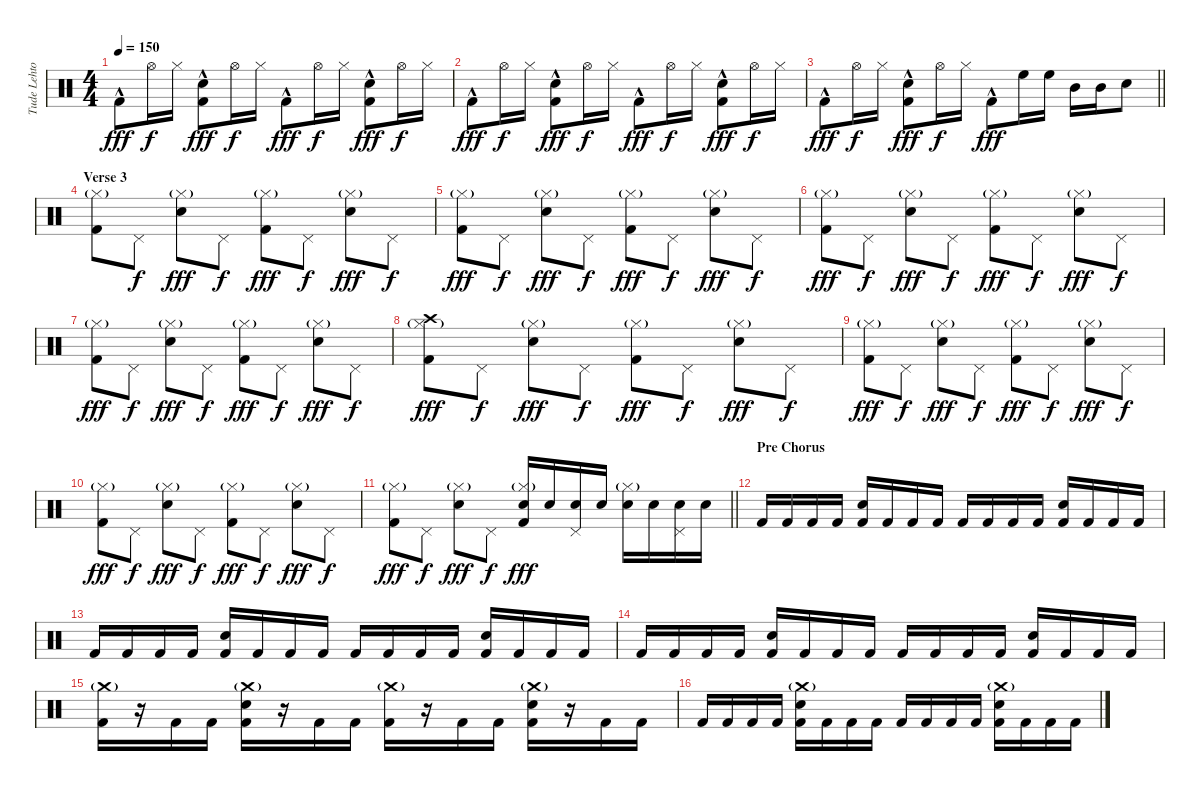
\track ("Tude Lehtonen" "Tude Lehto") {instrument percussion}
\staff {score}
\articulation defaults
\ts (4 4)
\tempo 150
\clef neutral
\ks c "Kick (hit) 2"{hac}.8{dy fff} "Hi-Hat (open)".16{dy f} "Hi-Hat (closed)".16
("Electric Snare (hit)" "Kick (hit) 2"{hac}).8{dy fff} "Hi-Hat (open)".16{dy f} "Hi-Hat (closed)".16 "Kick (hit) 2"{hac}.8{dy fff} "Hi-Hat (open)".16{dy f} "Hi-Hat (closed)".16 ("Electric Snare (hit)" "Kick (hit) 2"{hac}).8{dy fff} "Hi-Hat (open)".16{dy f} "Hi-Hat (closed)".16 |
"Kick (hit) 2"{hac}.8{dy fff} "Hi-Hat (open)".16{dy f} "Hi-Hat (closed)".16 ("Electric Snare (hit)" "Kick (hit) 2"{hac}).8{dy fff} "Hi-Hat (open)".16{dy f} "Hi-Hat (closed)".16 "Kick (hit) 2"{hac}.8{dy fff} "Hi-Hat (open)".16{dy f} "Hi-Hat (closed)".16 ("Electric Snare (hit)" "Kick (hit) 2"{hac}).8{dy fff} "Hi-Hat (open)".16{dy f} "Hi-Hat (closed)".16 |
\barLineRight lightlight "Kick (hit) 2"{hac}.8{dy fff} "Hi-Hat (open)".16{dy f} "Hi-Hat (closed)".16
("Electric Snare (hit)" "Kick (hit) 2"{hac}).8{dy fff} "Hi-Hat (open)".16{dy f} "Hi-Hat (closed)".16 "Kick (hit) 2"{hac}.8{dy fff} "High Floor Tom (hit)".16 "High Floor Tom (hit)".16 "Mid Tom (hit)".16 "Mid Tom (hit)".16 "Electric Snare (hit)".8 |
\section ("" "Verse 3")
("Hi-Hat (closed)"{g} "Kick (hit) 2").8 "Pedal Hi-Hat (hit)".8{dy f} ("Hi-Hat (closed)"{g} "Electric Snare (hit)").8{dy fff} "Pedal Hi-Hat (hit)".8{dy f} ("Hi-Hat (closed)"{g} "Kick (hit) 2").8{dy fff} "Pedal Hi-Hat (hit)".8{dy f} ("Hi-Hat (closed)"{g} "Electric Snare (hit)").8{dy fff} "Pedal Hi-Hat (hit)".8{dy f} |
("Hi-Hat (closed)"{g} "Kick (hit) 2").8{dy fff} "Pedal Hi-Hat (hit)".8{dy f} ("Hi-Hat (closed)"{g} "Electric Snare (hit)").8{dy fff} "Pedal Hi-Hat (hit)".8{dy f} ("Hi-Hat (closed)"{g} "Kick (hit) 2").8{dy fff} "Pedal Hi-Hat (hit)".8{dy f} ("Hi-Hat (closed)"{g} "Electric Snare (hit)").8{dy fff} "Pedal Hi-Hat (hit)".8{dy f} |
("Hi-Hat (closed)"{g} "Kick (hit) 2").8{dy fff} "Pedal Hi-Hat (hit)".8{dy f} ("Hi-Hat (closed)"{g} "Electric Snare (hit)").8{dy fff} "Pedal Hi-Hat (hit)".8{dy f} ("Hi-Hat (closed)"{g} "Kick (hit) 2").8{dy fff} "Pedal Hi-Hat (hit)".8{dy f} ("Hi-Hat (closed)"{g} "Electric Snare (hit)").8{dy fff} "Pedal Hi-Hat (hit)".8{dy f} |
("Hi-Hat (closed)"{g} "Kick (hit) 2").8{dy fff} "Pedal Hi-Hat (hit)".8{dy f} ("Hi-Hat (closed)"{g} "Electric Snare (hit)").8{dy fff} "Pedal Hi-Hat (hit)".8{dy f} ("Hi-Hat (closed)"{g} "Kick (hit) 2").8{dy fff} "Pedal Hi-Hat (hit)".8{dy f} ("Hi-Hat (closed)"{g} "Electric Snare (hit)").8{dy fff} "Pedal Hi-Hat (hit)".8{dy f} |
("Crash high (hit)" "Hi-Hat (closed)"{g} "Kick (hit) 2").8{dy fff} "Pedal Hi-Hat (hit)".8{dy f} ("Hi-Hat (closed)"{g} "Electric Snare (hit)").8{dy fff} "Pedal Hi-Hat (hit)".8{dy f} ("Hi-Hat (closed)"{g} "Kick (hit) 2").8{dy fff} "Pedal Hi-Hat (hit)".8{dy f} ("Hi-Hat (closed)"{g} "Electric Snare (hit)").8{dy fff} "Pedal Hi-Hat (hit)".8{dy f} |
("Hi-Hat (closed)"{g} "Kick (hit) 2").8{dy fff} "Pedal Hi-Hat (hit)".8{dy f} ("Hi-Hat (closed)"{g} "Electric Snare (hit)").8{dy fff} "Pedal Hi-Hat (hit)".8{dy f} ("Hi-Hat (closed)"{g} "Kick (hit) 2").8{dy fff} "Pedal Hi-Hat (hit)".8{dy f} ("Hi-Hat (closed)"{g} "Electric Snare (hit)").8{dy fff} "Pedal Hi-Hat (hit)".8{dy f} |
("Hi-Hat (closed)"{g} "Kick (hit) 2").8{dy fff} "Pedal Hi-Hat (hit)".8{dy f} ("Hi-Hat (closed)"{g} "Electric Snare (hit)").8{dy fff} "Pedal Hi-Hat (hit)".8{dy f} ("Hi-Hat (closed)"{g} "Kick (hit) 2").8{dy fff} "Pedal Hi-Hat (hit)".8{dy f} ("Hi-Hat (closed)"{g} "Electric Snare (hit)").8{dy fff} "Pedal Hi-Hat (hit)".8{dy f} |
\barLineRight lightlight
("Hi-Hat (closed)"{g} "Kick (hit) 2").8{dy fff} "Pedal Hi-Hat (hit)".8{dy f} ("Hi-Hat (closed)"{g} "Electric Snare (hit)").8{dy fff} "Pedal Hi-Hat (hit)".8{dy f} ("Hi-Hat (closed)"{g} "Electric Snare (hit)" "Kick (hit) 2").16{dy fff} "Electric Snare (hit)".16 ("Pedal Hi-Hat (hit)" "Electric Snare (hit)").16 "Electric Snare (hit)".16 ("Hi-Hat (closed)"{g} "Electric Snare (hit)").16 "Electric Snare (hit)".16 ("Pedal Hi-Hat (hit)" "Electric Snare (hit)").16 "Electric Snare (hit)".16 |
\section ("" "Pre Chorus")
"Kick (hit) 2".16 "Kick (hit) 2".16 "Kick (hit) 2".16 "Kick (hit) 2".16 ("Snare (hit) 2" "Kick (hit) 2").16 "Kick (hit) 2".16 "Kick (hit) 2".16 "Kick (hit) 2".16 "Kick (hit) 2".16 "Kick (hit) 2".16 "Kick (hit) 2".16 "Kick (hit) 2".16 ("Snare (hit) 2" "Kick (hit) 2").16 "Kick (hit) 2".16 "Kick (hit) 2".16 "Kick (hit) 2".16 |
"Kick (hit) 2".16 "Kick (hit) 2".16 "Kick (hit) 2".16 "Kick (hit) 2".16 ("Snare (hit) 2" "Kick (hit) 2").16 "Kick (hit) 2".16 "Kick (hit) 2".16 "Kick (hit) 2".16 "Kick (hit) 2".16 "Kick (hit) 2".16 "Kick (hit) 2".16 "Kick (hit) 2".16 ("Snare (hit) 2" "Kick (hit) 2").16 "Kick (hit) 2".16 "Kick (hit) 2".16 "Kick (hit) 2".16 |
"Kick (hit) 2".16 "Kick (hit) 2".16 "Kick (hit) 2".16 "Kick (hit) 2".16 ("Snare (hit) 2" "Kick (hit) 2").16 "Kick (hit) 2".16 "Kick (hit) 2".16 "Kick (hit) 2".16 "Kick (hit) 2".16 "Kick (hit) 2".16 "Kick (hit) 2".16 "Kick (hit) 2".16 ("Snare (hit) 2" "Kick (hit) 2").16 "Kick (hit) 2".16 "Kick (hit) 2".16 "Kick (hit) 2".16 |
("Crash medium (hit)"{g} "Kick (hit) 2").16 r.16 "Kick (hit) 2".16 "Kick (hit) 2".16 ("Crash medium (hit)"{g} "Snare (hit) 2" "Kick (hit) 2").16 r.16 "Kick (hit) 2".16 "Kick (hit) 2".16 ("Crash medium (hit)"{g} "Kick (hit) 2").16 r.16 "Kick (hit) 2".16 "Kick (hit) 2".16 ("Crash medium (hit)"{g} "Snare (hit) 2" "Kick (hit) 2").16 r.16 "Kick (hit) 2".16 "Kick (hit) 2".16 |
"Kick (hit) 2".16 "Kick (hit) 2".16 "Kick (hit) 2".16 "Kick (hit) 2".16 ("Crash medium (hit)"{g} "Snare (hit) 2" "Kick (hit) 2").16 "Kick (hit) 2".16 "Kick (hit) 2".16 "Kick (hit) 2".16 "Kick (hit) 2".16 "Kick (hit) 2".16 "Kick (hit) 2".16 "Kick (hit) 2".16 ("Crash medium (hit)"{g} "Snare (hit) 2" "Kick (hit) 2").16 "Kick (hit) 2".16 "Kick (hit) 2".16 "Kick (hit) 2".16
